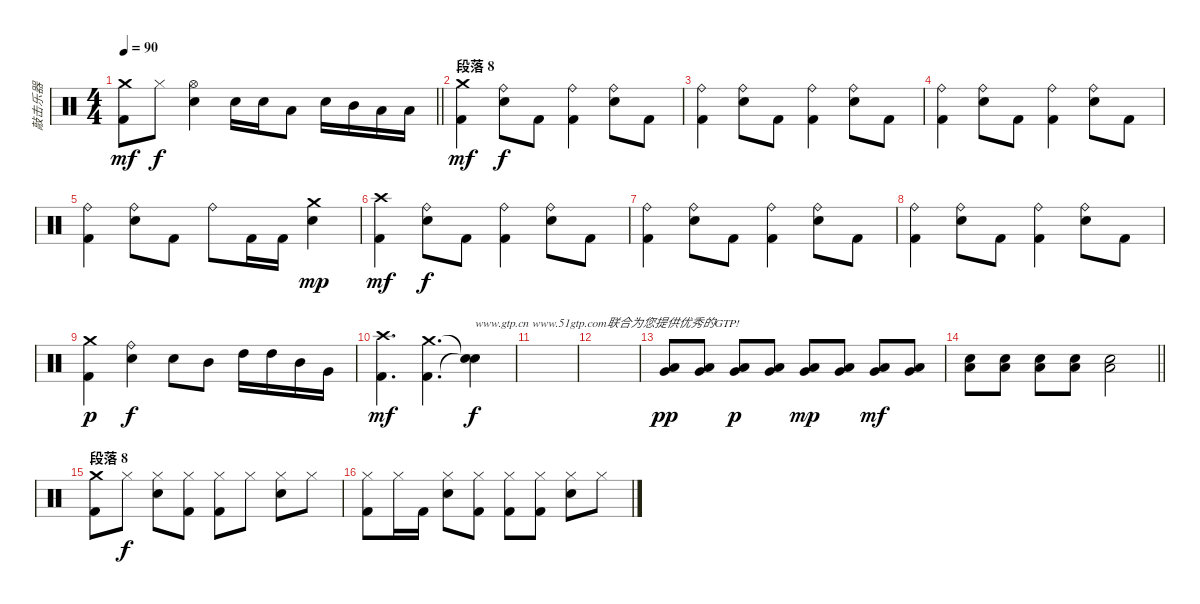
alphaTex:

\track ("敲击乐器" "敲击乐器") {instrument percussion}
\staff {score}
\articulation defaults
\ts (4 4)
\tempo 90
\clef neutral
\barLineRight lightlight
\ks c
("Crash medium (hit)" "Kick (hit) 2").8{dy mf} "Hi-Hat (closed)".8{dy f} ("Hi-Hat (open)" "Snare (hit) 2").4 "Snare (hit) 2".16 "Snare (hit) 2".16 "Low Tom (hit)".8 "Snare (hit) 2".16 "Mid Tom (hit)".16 "Low Tom (hit)".16 "Low Tom (hit)".16 |
\section ("" "段落 8")
("Crash medium (hit)" "Kick (hit) 2").4{dy mf} ("Ride (bell)" "Snare (hit) 2").8{dy f} "Kick (hit) 2".8 ("Ride (bell)" "Kick (hit) 2").4 ("Ride (bell)" "Snare (hit) 2").8 "Kick (hit) 2".8 |
("Ride (bell)" "Kick (hit) 2").4 ("Ride (bell)" "Snare (hit) 2").8 "Kick (hit) 2".8 ("Ride (bell)" "Kick (hit) 2").4 ("Ride (bell)" "Snare (hit) 2").8 "Kick (hit) 2".8 |
("Ride (bell)" "Kick (hit) 2").4 ("Ride (bell)" "Snare (hit) 2").8 "Kick (hit) 2".8 ("Ride (bell)" "Kick (hit) 2").4 ("Ride (bell)" "Snare (hit) 2").8 "Kick (hit) 2".8 |
("Ride (bell)" "Kick (hit) 2").4 ("Ride (bell)" "Snare (hit) 2").8 "Kick (hit) 2".8 "Ride (bell)".8 "Kick (hit) 2".16 "Kick (hit) 2".16 ("Crash medium (hit)" "Snare (hit) 2").4{dy mp} |
("Crash high (hit)" "Kick (hit) 2").4{dy mf} ("Ride (bell)" "Snare (hit) 2").8{dy f} "Kick (hit) 2".8 ("Ride (bell)" "Kick (hit) 2").4 ("Ride (bell)" "Snare (hit) 2").8 "Kick (hit) 2".8 |
("Ride (bell)" "Kick (hit) 2").4 ("Ride (bell)" "Snare (hit) 2").8 "Kick (hit) 2".8 ("Ride (bell)" "Kick (hit) 2").4 ("Ride (bell)" "Snare (hit) 2").8 "Kick (hit) 2".8 |
("Ride (bell)" "Kick (hit) 2").4 ("Ride (bell)" "Snare (hit) 2").8 "Kick (hit) 2".8 ("Ride (bell)" "Kick (hit) 2").4 ("Ride (bell)" "Snare (hit) 2").8 "Kick (hit) 2".8 |
("Crash medium (hit)" "Kick (hit) 2").4{dy p} ("Ride (bell)" "Snare (hit) 2").4{dy f} "Snare (hit) 2".8 "Mid Tom (hit)".8 "High Tom (hit)".16 "High Tom (hit)".16 "Mid Tom (hit)".16 "Very Low Tom (hit)".16 |
("Crash high (hit)" "Kick (hit) 2").4{d dy mf} ("Crash medium (hit)" "Kick (hit) 2").4{d} ("Snare (hit)"{t} "Snare (hit)"{t}).4{txt "www.gtp.cn www.51gtp.com联合为您提供优秀的GTP!" dy f} |
|
|
("Very Low Tom (hit)" "Low Floor Tom (hit)").8{dy pp} ("Very Low Tom (hit)" "Low Floor Tom (hit)").8 ("Very Low Tom (hit)" "Low Floor Tom (hit)").8{dy p} ("Very Low Tom (hit)" "Low Floor Tom (hit)").8 ("Very Low Tom (hit)" "Low Floor Tom (hit)").8{dy mp} ("Very Low Tom (hit)" "Low Floor Tom (hit)").8 ("Very Low Tom (hit)" "Low Floor Tom (hit)").8{dy mf} ("Very Low Tom (hit)" "Low Floor Tom (hit)").8 |
\barLineRight lightlight
("Snare (hit) 2" "Low Floor Tom (hit)").8 ("Snare (hit) 2" "Low Floor Tom (hit)").8 ("Snare (hit) 2" "Low Floor Tom (hit)").8 ("Snare (hit) 2" "Low Floor Tom (hit)").8 ("Snare (hit) 2" "Low Floor Tom (hit)").2 |
\section ("" "段落 8")
("Crash medium (hit)" "Kick (hit) 2").8 "Hi-Hat (closed)".8{dy f} ("Hi-Hat (closed)" "Snare (hit) 2").8 ("Hi-Hat (closed)" "Kick (hit) 2").8 ("Hi-Hat (closed)" "Kick (hit) 2").8 "Hi-Hat (closed)".8 ("Hi-Hat (closed)" "Snare (hit) 2").8 "Hi-Hat (closed)".8 |
("Hi-Hat (closed)" "Kick (hit) 2").8 "Hi-Hat (closed)".16 "Kick (hit) 2".16 ("Hi-Hat (closed)" "Snare (hit) 2").8 ("Hi-Hat (closed)" "Kick (hit) 2").8 ("Hi-Hat (closed)" "Kick (hit) 2").8 ("Hi-Hat (closed)" "Kick (hit) 2").8 ("Hi-Hat (closed)" "Snare (hit) 2").8 "Hi-Hat (closed)".8
